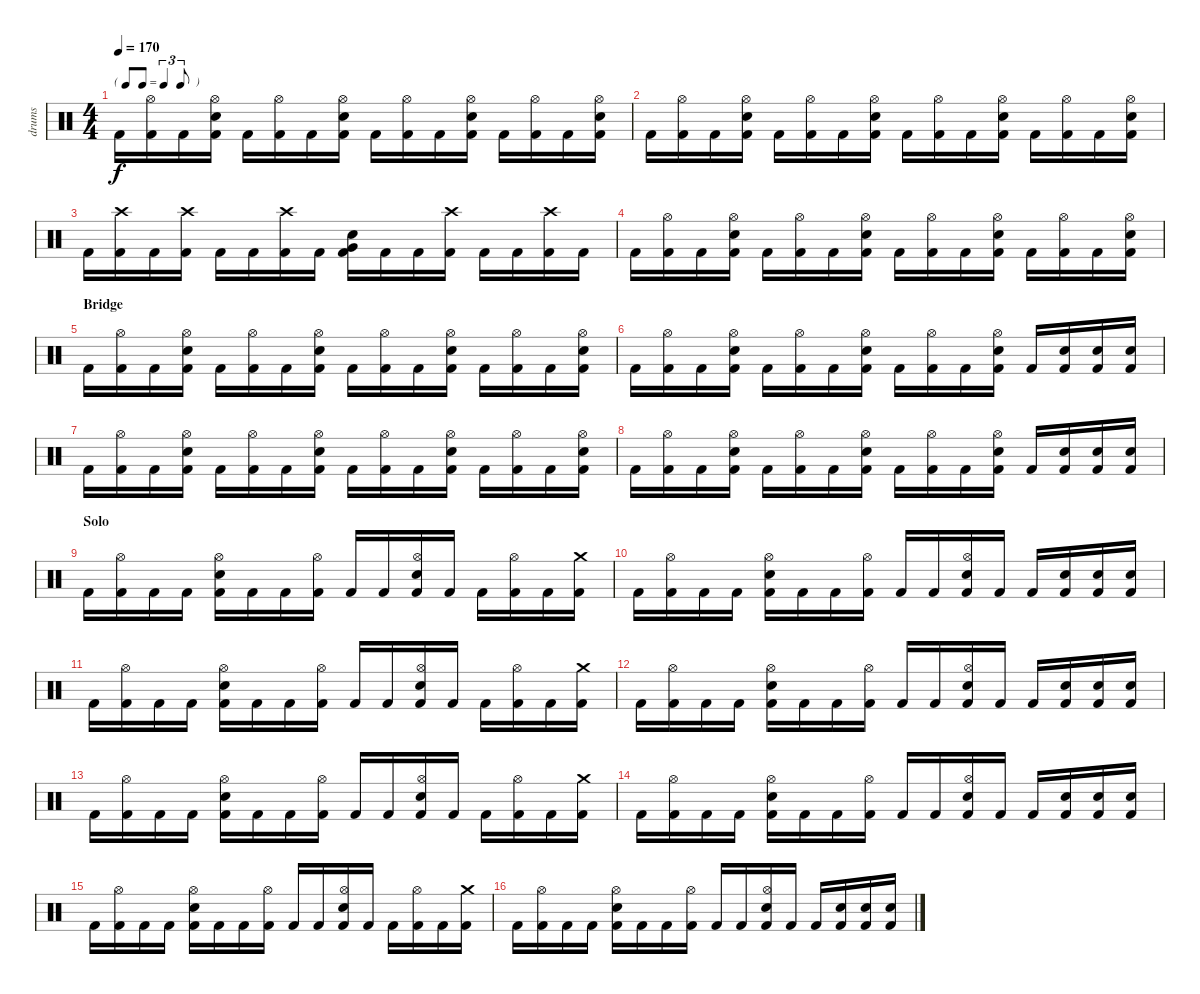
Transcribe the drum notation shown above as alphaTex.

\track ("drums" "drums") {instrument percussion}
\staff {score}
\articulation defaults
\ts (4 4)
\tf triplet8th
\tempo 170
\clef neutral
\ks c "Kick (hit) 2".16{dy f}
("Kick (hit) 2" "Hi-Hat (open)").16 "Kick (hit) 2".16 ("Kick (hit) 2" "Electric Snare (hit)" "Hi-Hat (open)").16 "Kick (hit) 2".16 ("Kick (hit) 2" "Hi-Hat (open)").16 "Kick (hit) 2".16 ("Kick (hit) 2" "Electric Snare (hit)" "Hi-Hat (open)").16 "Kick (hit) 2".16 ("Kick (hit) 2" "Hi-Hat (open)").16 "Kick (hit) 2".16 ("Kick (hit) 2" "Electric Snare (hit)" "Hi-Hat (open)").16 "Kick (hit) 2".16 ("Kick (hit) 2" "Hi-Hat (open)").16 "Kick (hit) 2".16 ("Kick (hit) 2" "Electric Snare (hit)" "Hi-Hat (open)").16 |
"Kick (hit) 2".16 ("Kick (hit) 2" "Hi-Hat (open)").16 "Kick (hit) 2".16 ("Kick (hit) 2" "Electric Snare (hit)" "Hi-Hat (open)").16 "Kick (hit) 2".16 ("Kick (hit) 2" "Hi-Hat (open)").16 "Kick (hit) 2".16 ("Kick (hit) 2" "Electric Snare (hit)" "Hi-Hat (open)").16 "Kick (hit) 2".16 ("Kick (hit) 2" "Hi-Hat (open)").16 "Kick (hit) 2".16 ("Kick (hit) 2" "Electric Snare (hit)" "Hi-Hat (open)").16 "Kick (hit) 2".16 ("Kick (hit) 2" "Hi-Hat (open)").16 "Kick (hit) 2".16 ("Kick (hit) 2" "Electric Snare (hit)" "Hi-Hat (open)").16 |
"Kick (hit) 2".16 ("Kick (hit) 2" "Crash high (hit)").16 "Kick (hit) 2".16 ("Kick (hit) 2" "Crash high (hit)").16 "Kick (hit) 2".16 "Kick (hit) 2".16 ("Kick (hit) 2" "Crash high (hit)").16 "Kick (hit) 2".16 ("Kick (hit) 2" "Electric Snare (hit)" "Very Low Tom (hit)").16 "Kick (hit) 2".16 "Kick (hit) 2".16 ("Kick (hit) 2" "Crash high (hit)").16 "Kick (hit) 2".16 "Kick (hit) 2".16 ("Kick (hit) 2" "Crash high (hit)").16 "Kick (hit) 2".16 |
"Kick (hit) 2".16 ("Kick (hit) 2" "Hi-Hat (open)").16 "Kick (hit) 2".16 ("Kick (hit) 2" "Electric Snare (hit)" "Hi-Hat (open)").16 "Kick (hit) 2".16 ("Kick (hit) 2" "Hi-Hat (open)").16 "Kick (hit) 2".16 ("Kick (hit) 2" "Electric Snare (hit)" "Hi-Hat (open)").16 "Kick (hit) 2".16 ("Kick (hit) 2" "Hi-Hat (open)").16 "Kick (hit) 2".16 ("Kick (hit) 2" "Electric Snare (hit)" "Hi-Hat (open)").16 "Kick (hit) 2".16 ("Kick (hit) 2" "Hi-Hat (open)").16 "Kick (hit) 2".16 ("Kick (hit) 2" "Electric Snare (hit)" "Hi-Hat (open)").16 |
\section ("" "Bridge")
"Kick (hit) 2".16 ("Kick (hit) 2" "Hi-Hat (open)").16 "Kick (hit) 2".16 ("Kick (hit) 2" "Electric Snare (hit)" "Hi-Hat (open)").16 "Kick (hit) 2".16 ("Kick (hit) 2" "Hi-Hat (open)").16 "Kick (hit) 2".16 ("Kick (hit) 2" "Electric Snare (hit)" "Hi-Hat (open)").16 "Kick (hit) 2".16 ("Kick (hit) 2" "Hi-Hat (open)").16 "Kick (hit) 2".16 ("Kick (hit) 2" "Electric Snare (hit)" "Hi-Hat (open)").16 "Kick (hit) 2".16 ("Kick (hit) 2" "Hi-Hat (open)").16 "Kick (hit) 2".16 ("Kick (hit) 2" "Electric Snare (hit)" "Hi-Hat (open)").16 |
"Kick (hit) 2".16 ("Kick (hit) 2" "Hi-Hat (open)").16 "Kick (hit) 2".16 ("Kick (hit) 2" "Electric Snare (hit)" "Hi-Hat (open)").16 "Kick (hit) 2".16 ("Kick (hit) 2" "Hi-Hat (open)").16 "Kick (hit) 2".16 ("Kick (hit) 2" "Electric Snare (hit)" "Hi-Hat (open)").16 "Kick (hit) 2".16 ("Kick (hit) 2" "Hi-Hat (open)").16 "Kick (hit) 2".16 ("Kick (hit) 2" "Electric Snare (hit)" "Hi-Hat (open)").16 "Kick (hit) 2".16 ("Kick (hit) 2" "Snare (hit) 2").16 ("Kick (hit) 2" "Snare (hit) 2").16 ("Kick (hit) 2" "Snare (hit) 2").16 |
"Kick (hit) 2".16 ("Kick (hit) 2" "Hi-Hat (open)").16 "Kick (hit) 2".16 ("Kick (hit) 2" "Electric Snare (hit)" "Hi-Hat (open)").16 "Kick (hit) 2".16 ("Kick (hit) 2" "Hi-Hat (open)").16 "Kick (hit) 2".16 ("Kick (hit) 2" "Electric Snare (hit)" "Hi-Hat (open)").16 "Kick (hit) 2".16 ("Kick (hit) 2" "Hi-Hat (open)").16 "Kick (hit) 2".16 ("Kick (hit) 2" "Electric Snare (hit)" "Hi-Hat (open)").16 "Kick (hit) 2".16 ("Kick (hit) 2" "Hi-Hat (open)").16 "Kick (hit) 2".16 ("Kick (hit) 2" "Electric Snare (hit)" "Hi-Hat (open)").16 |
"Kick (hit) 2".16 ("Kick (hit) 2" "Hi-Hat (open)").16 "Kick (hit) 2".16 ("Kick (hit) 2" "Electric Snare (hit)" "Hi-Hat (open)").16 "Kick (hit) 2".16 ("Kick (hit) 2" "Hi-Hat (open)").16 "Kick (hit) 2".16 ("Kick (hit) 2" "Electric Snare (hit)" "Hi-Hat (open)").16 "Kick (hit) 2".16 ("Kick (hit) 2" "Hi-Hat (open)").16 "Kick (hit) 2".16 ("Kick (hit) 2" "Electric Snare (hit)" "Hi-Hat (open)").16 "Kick (hit) 2".16 ("Kick (hit) 2" "Snare (hit) 2").16 ("Kick (hit) 2" "Snare (hit) 2").16 ("Kick (hit) 2" "Snare (hit) 2").16 |
\section ("" "Solo")
"Kick (hit) 2".16 ("Hi-Hat (open)" "Kick (hit) 2").16 "Kick (hit) 2".16 "Kick (hit) 2".16 ("Hi-Hat (open)" "Electric Snare (hit)" "Kick (hit) 2").16 "Kick (hit) 2".16 "Kick (hit) 2".16 ("Hi-Hat (open)" "Kick (hit) 2").16 "Kick (hit) 2".16 "Kick (hit) 2".16 ("Hi-Hat (open)" "Electric Snare (hit)" "Kick (hit) 2").16 "Kick (hit) 2".16 "Kick (hit) 2".16 ("Hi-Hat (open)" "Kick (hit) 2").16 "Kick (hit) 2".16 ("Crash medium (hit)" "Kick (hit) 2").16 |
"Kick (hit) 2".16 ("Hi-Hat (open)" "Kick (hit) 2").16 "Kick (hit) 2".16 "Kick (hit) 2".16 ("Hi-Hat (open)" "Electric Snare (hit)" "Kick (hit) 2").16 "Kick (hit) 2".16 "Kick (hit) 2".16 ("Hi-Hat (open)" "Kick (hit) 2").16 "Kick (hit) 2".16 "Kick (hit) 2".16 ("Hi-Hat (open)" "Electric Snare (hit)" "Kick (hit) 2").16 "Kick (hit) 2".16 "Kick (hit) 2".16 ("Electric Snare (hit)" "Kick (hit) 2").16 ("Electric Snare (hit)" "Kick (hit) 2").16 ("Electric Snare (hit)" "Kick (hit) 2").16 |
"Kick (hit) 2".16 ("Hi-Hat (open)" "Kick (hit) 2").16 "Kick (hit) 2".16 "Kick (hit) 2".16 ("Hi-Hat (open)" "Electric Snare (hit)" "Kick (hit) 2").16 "Kick (hit) 2".16 "Kick (hit) 2".16 ("Hi-Hat (open)" "Kick (hit) 2").16 "Kick (hit) 2".16 "Kick (hit) 2".16 ("Hi-Hat (open)" "Electric Snare (hit)" "Kick (hit) 2").16 "Kick (hit) 2".16 "Kick (hit) 2".16 ("Hi-Hat (open)" "Kick (hit) 2").16 "Kick (hit) 2".16 ("Crash medium (hit)" "Kick (hit) 2").16 |
"Kick (hit) 2".16 ("Hi-Hat (open)" "Kick (hit) 2").16 "Kick (hit) 2".16 "Kick (hit) 2".16 ("Hi-Hat (open)" "Electric Snare (hit)" "Kick (hit) 2").16 "Kick (hit) 2".16 "Kick (hit) 2".16 ("Hi-Hat (open)" "Kick (hit) 2").16 "Kick (hit) 2".16 "Kick (hit) 2".16 ("Hi-Hat (open)" "Electric Snare (hit)" "Kick (hit) 2").16 "Kick (hit) 2".16 "Kick (hit) 2".16 ("Electric Snare (hit)" "Kick (hit) 2").16 ("Electric Snare (hit)" "Kick (hit) 2").16 ("Electric Snare (hit)" "Kick (hit) 2").16 |
"Kick (hit) 2".16 ("Hi-Hat (open)" "Kick (hit) 2").16 "Kick (hit) 2".16 "Kick (hit) 2".16 ("Hi-Hat (open)" "Electric Snare (hit)" "Kick (hit) 2").16 "Kick (hit) 2".16 "Kick (hit) 2".16 ("Hi-Hat (open)" "Kick (hit) 2").16 "Kick (hit) 2".16 "Kick (hit) 2".16 ("Hi-Hat (open)" "Electric Snare (hit)" "Kick (hit) 2").16 "Kick (hit) 2".16 "Kick (hit) 2".16 ("Hi-Hat (open)" "Kick (hit) 2").16 "Kick (hit) 2".16 ("Crash medium (hit)" "Kick (hit) 2").16 |
"Kick (hit) 2".16 ("Hi-Hat (open)" "Kick (hit) 2").16 "Kick (hit) 2".16 "Kick (hit) 2".16 ("Hi-Hat (open)" "Electric Snare (hit)" "Kick (hit) 2").16 "Kick (hit) 2".16 "Kick (hit) 2".16 ("Hi-Hat (open)" "Kick (hit) 2").16 "Kick (hit) 2".16 "Kick (hit) 2".16 ("Hi-Hat (open)" "Electric Snare (hit)" "Kick (hit) 2").16 "Kick (hit) 2".16 "Kick (hit) 2".16 ("Electric Snare (hit)" "Kick (hit) 2").16 ("Electric Snare (hit)" "Kick (hit) 2").16 ("Electric Snare (hit)" "Kick (hit) 2").16 |
"Kick (hit) 2".16 ("Hi-Hat (open)" "Kick (hit) 2").16 "Kick (hit) 2".16 "Kick (hit) 2".16 ("Hi-Hat (open)" "Electric Snare (hit)" "Kick (hit) 2").16 "Kick (hit) 2".16 "Kick (hit) 2".16 ("Hi-Hat (open)" "Kick (hit) 2").16 "Kick (hit) 2".16 "Kick (hit) 2".16 ("Hi-Hat (open)" "Electric Snare (hit)" "Kick (hit) 2").16 "Kick (hit) 2".16 "Kick (hit) 2".16 ("Hi-Hat (open)" "Kick (hit) 2").16 "Kick (hit) 2".16 ("Crash medium (hit)" "Kick (hit) 2").16 |
"Kick (hit) 2".16 ("Hi-Hat (open)" "Kick (hit) 2").16 "Kick (hit) 2".16 "Kick (hit) 2".16 ("Hi-Hat (open)" "Electric Snare (hit)" "Kick (hit) 2").16 "Kick (hit) 2".16 "Kick (hit) 2".16 ("Hi-Hat (open)" "Kick (hit) 2").16 "Kick (hit) 2".16 "Kick (hit) 2".16 ("Hi-Hat (open)" "Electric Snare (hit)" "Kick (hit) 2").16 "Kick (hit) 2".16 "Kick (hit) 2".16 ("Electric Snare (hit)" "Kick (hit) 2").16 ("Electric Snare (hit)" "Kick (hit) 2").16 ("Electric Snare (hit)" "Kick (hit) 2").16
